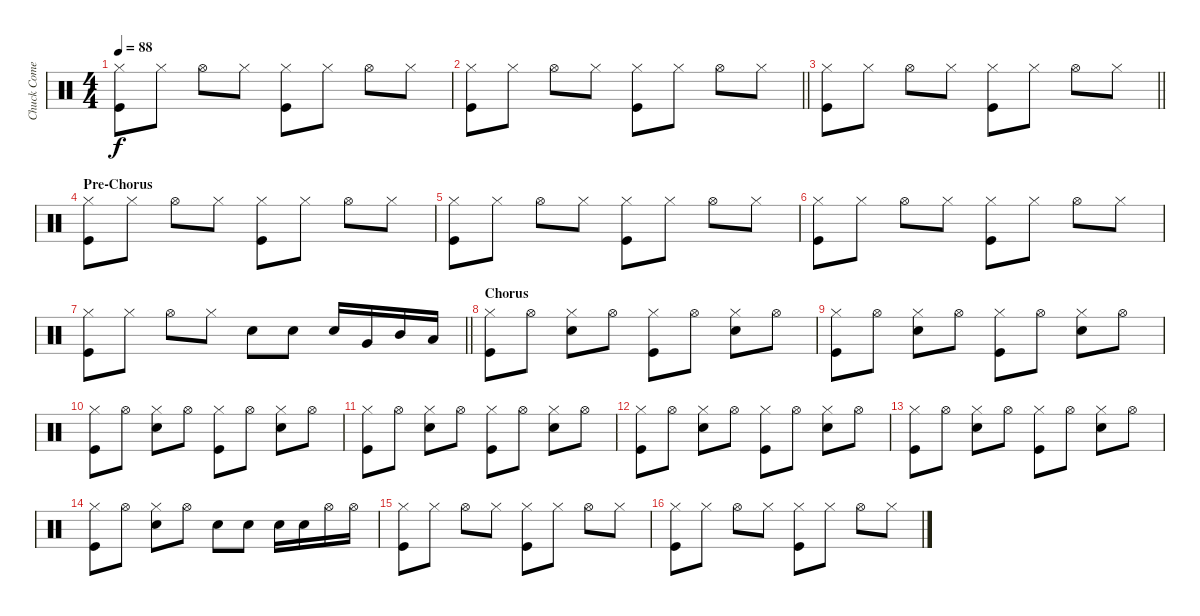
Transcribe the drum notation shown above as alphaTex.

\track ("Chuck Comeau" "Chuck Come") {instrument percussion}
\staff {score}
\articulation defaults
\ts (4 4)
\tempo 88
\clef neutral
\ks c
("Hi-Hat (closed)" "Kick (hit)").8{dy f} "Hi-Hat (closed)".8 "Hi-Hat (open)".8 "Hi-Hat (closed)".8 ("Hi-Hat (closed)" "Kick (hit)").8 "Hi-Hat (closed)".8 "Hi-Hat (open)".8 "Hi-Hat (closed)".8 |
\barLineRight lightlight
("Hi-Hat (closed)" "Kick (hit)").8 "Hi-Hat (closed)".8 "Hi-Hat (open)".8 "Hi-Hat (closed)".8 ("Hi-Hat (closed)" "Kick (hit)").8 "Hi-Hat (closed)".8 "Hi-Hat (open)".8 "Hi-Hat (closed)".8 |
\section ("" "")
\barLineRight lightlight
("Hi-Hat (closed)" "Kick (hit)").8 "Hi-Hat (closed)".8 "Hi-Hat (open)".8 "Hi-Hat (closed)".8 ("Hi-Hat (closed)" "Kick (hit)").8 "Hi-Hat (closed)".8 "Hi-Hat (open)".8 "Hi-Hat (closed)".8 |
\section ("" "Pre-Chorus")
("Hi-Hat (closed)" "Kick (hit)").8 "Hi-Hat (closed)".8 "Hi-Hat (open)".8 "Hi-Hat (closed)".8 ("Hi-Hat (closed)" "Kick (hit)").8 "Hi-Hat (closed)".8 "Hi-Hat (open)".8 "Hi-Hat (closed)".8 |
("Hi-Hat (closed)" "Kick (hit)").8 "Hi-Hat (closed)".8 "Hi-Hat (open)".8 "Hi-Hat (closed)".8 ("Hi-Hat (closed)" "Kick (hit)").8 "Hi-Hat (closed)".8 "Hi-Hat (open)".8 "Hi-Hat (closed)".8 |
("Hi-Hat (closed)" "Kick (hit)").8 "Hi-Hat (closed)".8 "Hi-Hat (open)".8 "Hi-Hat (closed)".8 ("Hi-Hat (closed)" "Kick (hit)").8 "Hi-Hat (closed)".8 "Hi-Hat (open)".8 "Hi-Hat (closed)".8 |
\barLineRight lightlight
("Hi-Hat (closed)" "Kick (hit)").8 "Hi-Hat (closed)".8 "Hi-Hat (open)".8 "Hi-Hat (closed)".8 "Snare (hit) 2".8 "Snare (hit) 2".8 "Snare (hit) 2".16 "Very Low Tom (hit)".16 "Mid Tom (hit)".16 "Low Tom (hit)".16 |
\section ("" "Chorus")
("Hi-Hat (closed)" "Kick (hit)").8 "Hi-Hat (open)".8 ("Hi-Hat (closed)" "Snare (hit) 2").8 "Hi-Hat (open)".8 ("Hi-Hat (closed)" "Kick (hit)").8 "Hi-Hat (open)".8 ("Hi-Hat (closed)" "Snare (hit) 2").8 "Hi-Hat (open)".8 |
("Hi-Hat (closed)" "Kick (hit)").8 "Hi-Hat (open)".8 ("Hi-Hat (closed)" "Snare (hit) 2").8 "Hi-Hat (open)".8 ("Hi-Hat (closed)" "Kick (hit)").8 "Hi-Hat (open)".8 ("Hi-Hat (closed)" "Snare (hit) 2").8 "Hi-Hat (open)".8 |
("Hi-Hat (closed)" "Kick (hit)").8 "Hi-Hat (open)".8 ("Hi-Hat (closed)" "Snare (hit) 2").8 "Hi-Hat (open)".8 ("Hi-Hat (closed)" "Kick (hit)").8 "Hi-Hat (open)".8 ("Hi-Hat (closed)" "Snare (hit) 2").8 "Hi-Hat (open)".8 |
("Hi-Hat (closed)" "Kick (hit)").8 "Hi-Hat (open)".8 ("Hi-Hat (closed)" "Snare (hit) 2").8 "Hi-Hat (open)".8 ("Hi-Hat (closed)" "Kick (hit)").8 "Hi-Hat (open)".8 ("Hi-Hat (closed)" "Snare (hit) 2").8 "Hi-Hat (open)".8 |
("Hi-Hat (closed)" "Kick (hit)").8 "Hi-Hat (open)".8 ("Hi-Hat (closed)" "Snare (hit) 2").8 "Hi-Hat (open)".8 ("Hi-Hat (closed)" "Kick (hit)").8 "Hi-Hat (open)".8 ("Hi-Hat (closed)" "Snare (hit) 2").8 "Hi-Hat (open)".8 |
("Hi-Hat (closed)" "Kick (hit)").8 "Hi-Hat (open)".8 ("Hi-Hat (closed)" "Snare (hit) 2").8 "Hi-Hat (open)".8 ("Hi-Hat (closed)" "Kick (hit)").8 "Hi-Hat (open)".8 ("Hi-Hat (closed)" "Snare (hit) 2").8 "Hi-Hat (open)".8 |
("Hi-Hat (closed)" "Kick (hit)").8 "Hi-Hat (open)".8 ("Hi-Hat (closed)" "Snare (hit) 2").8 "Hi-Hat (open)".8 "Snare (hit) 2".8 "Snare (hit) 2".8 "Snare (hit) 2".16 "Snare (hit) 2".16 "Hi-Hat (open)".16 "Hi-Hat (open)".16 |
("Hi-Hat (closed)" "Kick (hit)").8 "Hi-Hat (closed)".8 "Hi-Hat (open)".8 "Hi-Hat (closed)".8 ("Hi-Hat (closed)" "Kick (hit)").8 "Hi-Hat (closed)".8 "Hi-Hat (open)".8 "Hi-Hat (closed)".8 |
("Hi-Hat (closed)" "Kick (hit)").8 "Hi-Hat (closed)".8 "Hi-Hat (open)".8 "Hi-Hat (closed)".8 ("Hi-Hat (closed)" "Kick (hit)").8 "Hi-Hat (closed)".8 "Hi-Hat (open)".8 "Hi-Hat (closed)".8
